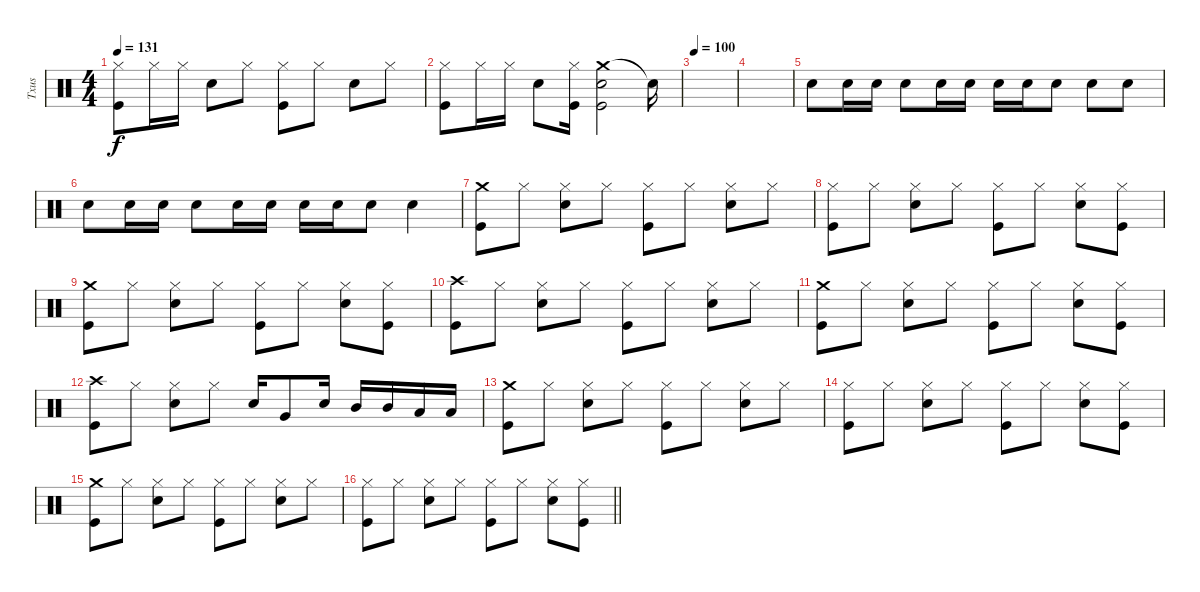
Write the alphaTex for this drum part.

\track ("Txus" "Txus") {instrument percussion}
\staff {score}
\articulation defaults
\ts (4 4)
\tempo 131
\clef neutral
\ks c
("Hi-Hat (closed)" "Kick (hit)").8{dy f} "Hi-Hat (closed)".16 "Hi-Hat (closed)".16 "Electric Snare (hit)".8 "Hi-Hat (closed)".8 ("Hi-Hat (closed)" "Kick (hit)").8 "Hi-Hat (closed)".8 "Electric Snare (hit)".8 "Hi-Hat (closed)".8 |
("Hi-Hat (closed)" "Kick (hit)").8 "Hi-Hat (closed)".16 "Hi-Hat (closed)".16 "Electric Snare (hit)".8 ("Hi-Hat (closed)" "Kick (hit)").16 ("Crash medium (hit)" "Electric Snare (hit)" "Kick (hit)").2 "Snare (hit)"{t}.16 |
\tempo 100
|
|
"Electric Snare (hit)".8 "Electric Snare (hit)".16 "Electric Snare (hit)".16 "Electric Snare (hit)".8 "Electric Snare (hit)".16 "Electric Snare (hit)".16 "Electric Snare (hit)".16 "Electric Snare (hit)".16 "Electric Snare (hit)".8 "Electric Snare (hit)".8 "Electric Snare (hit)".8 |
"Electric Snare (hit)".8 "Electric Snare (hit)".16 "Electric Snare (hit)".16 "Electric Snare (hit)".8 "Electric Snare (hit)".16 "Electric Snare (hit)".16 "Electric Snare (hit)".16 "Electric Snare (hit)".16 "Electric Snare (hit)".8 "Electric Snare (hit)".4 |
("Crash medium (hit)" "Kick (hit)").8 "Hi-Hat (closed)".8 ("Hi-Hat (closed)" "Electric Snare (hit)").8 "Hi-Hat (closed)".8 ("Hi-Hat (closed)" "Kick (hit)").8 "Hi-Hat (closed)".8 ("Hi-Hat (closed)" "Electric Snare (hit)").8 "Hi-Hat (closed)".8 |
("Hi-Hat (closed)" "Kick (hit)").8 "Hi-Hat (closed)".8 ("Hi-Hat (closed)" "Electric Snare (hit)").8 "Hi-Hat (closed)".8 ("Hi-Hat (closed)" "Kick (hit)").8 "Hi-Hat (closed)".8 ("Hi-Hat (closed)" "Electric Snare (hit)").8 ("Hi-Hat (closed)" "Kick (hit)").8 |
("Crash medium (hit)" "Kick (hit)").8 "Hi-Hat (closed)".8 ("Hi-Hat (closed)" "Electric Snare (hit)").8 "Hi-Hat (closed)".8 ("Hi-Hat (closed)" "Kick (hit)").8 "Hi-Hat (closed)".8 ("Hi-Hat (closed)" "Electric Snare (hit)").8 ("Hi-Hat (closed)" "Kick (hit)").8 |
("Crash high (hit)" "Kick (hit)").8 "Hi-Hat (closed)".8 ("Hi-Hat (closed)" "Electric Snare (hit)").8 "Hi-Hat (closed)".8 ("Hi-Hat (closed)" "Kick (hit)").8 "Hi-Hat (closed)".8 ("Hi-Hat (closed)" "Electric Snare (hit)").8 "Hi-Hat (closed)".8 |
("Crash medium (hit)" "Kick (hit)").8 "Hi-Hat (closed)".8 ("Hi-Hat (closed)" "Electric Snare (hit)").8 "Hi-Hat (closed)".8 ("Hi-Hat (closed)" "Kick (hit)").8 "Hi-Hat (closed)".8 ("Hi-Hat (closed)" "Electric Snare (hit)").8 ("Hi-Hat (closed)" "Kick (hit)").8 |
("Crash high (hit)" "Kick (hit)").8 "Hi-Hat (closed)".8 ("Hi-Hat (closed)" "Electric Snare (hit)").8 "Hi-Hat (closed)".8 "Electric Snare (hit)".16 "Very Low Tom (hit)".8 "Electric Snare (hit)".16 "Mid Tom (hit)".16 "Mid Tom (hit)".16 "Low Tom (hit)".16 "Low Tom (hit)".16 |
("Crash medium (hit)" "Kick (hit)").8 "Hi-Hat (closed)".8 ("Hi-Hat (closed)" "Electric Snare (hit)").8 "Hi-Hat (closed)".8 ("Hi-Hat (closed)" "Kick (hit)").8 "Hi-Hat (closed)".8 ("Hi-Hat (closed)" "Electric Snare (hit)").8 "Hi-Hat (closed)".8 |
("Hi-Hat (closed)" "Kick (hit)").8 "Hi-Hat (closed)".8 ("Hi-Hat (closed)" "Electric Snare (hit)").8 "Hi-Hat (closed)".8 ("Hi-Hat (closed)" "Kick (hit)").8 "Hi-Hat (closed)".8 ("Hi-Hat (closed)" "Electric Snare (hit)").8 ("Hi-Hat (closed)" "Kick (hit)").8 |
("Crash medium (hit)" "Kick (hit)").8 "Hi-Hat (closed)".8 ("Hi-Hat (closed)" "Electric Snare (hit)").8 "Hi-Hat (closed)".8 ("Hi-Hat (closed)" "Kick (hit)").8 "Hi-Hat (closed)".8 ("Hi-Hat (closed)" "Electric Snare (hit)").8 "Hi-Hat (closed)".8 |
\barLineRight lightlight
("Hi-Hat (closed)" "Kick (hit)").8 "Hi-Hat (closed)".8 ("Hi-Hat (closed)" "Electric Snare (hit)").8 "Hi-Hat (closed)".8 ("Hi-Hat (closed)" "Kick (hit)").8 "Hi-Hat (closed)".8 ("Hi-Hat (closed)" "Electric Snare (hit)").8 ("Hi-Hat (closed)" "Kick (hit)").8
